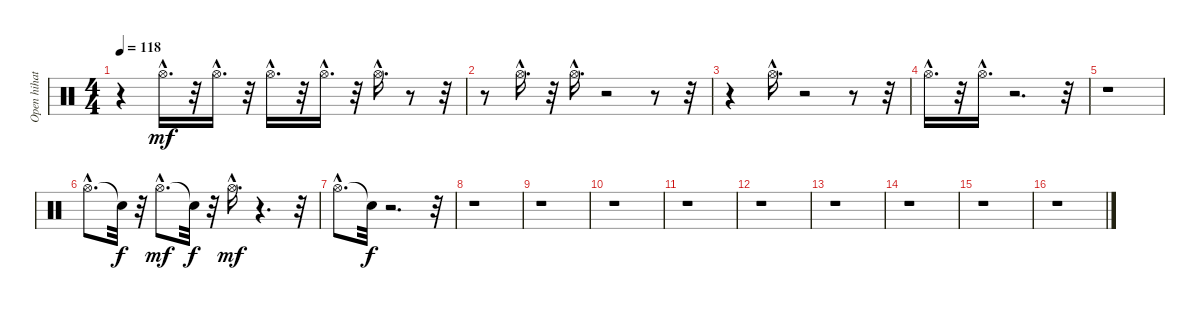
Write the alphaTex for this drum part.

\track ("Open hihat          " "Open hihat") {instrument percussion}
\staff {score}
\articulation defaults
\ts (4 4)
\tempo 118
\clef neutral
\ks c
r.4{dy mf} "Hi-Hat (open)"{hac}.16{d} r.32 "Hi-Hat (open)"{hac}.16{d} r.32 "Hi-Hat (open)"{hac}.16{d} r.32 "Hi-Hat (open)"{hac}.16{d} r.32 "Hi-Hat (open)"{hac}.16{d} r.8 r.32 |
r.8 "Hi-Hat (open)"{hac}.16{d} r.32 "Hi-Hat (open)"{hac}.16{d} r.2 r.8 r.32 |
r.4 "Hi-Hat (open)"{hac}.16{d} r.2 r.8 r.32 |
"Hi-Hat (open)"{hac}.16{d} r.32 "Hi-Hat (open)"{hac}.16{d} r.2{d} r.32 |
r.1 |
"Hi-Hat (open)"{hac}.8{d} "Snare (hit)"{t}.32{dy f} r.32 "Hi-Hat (open)"{hac}.8{d dy mf} "Snare (hit)"{t}.32{dy f} r.32 "Hi-Hat (open)"{hac}.16{d dy mf} r.4{d} r.32 |
"Hi-Hat (open)"{hac}.8{d} "Snare (hit)"{t}.32{dy f} r.2{d} r.32 |
r.1 |
r.1 |
r.1 |
r.1 |
r.1 |
r.1 |
r.1 |
r.1 |
r.1
